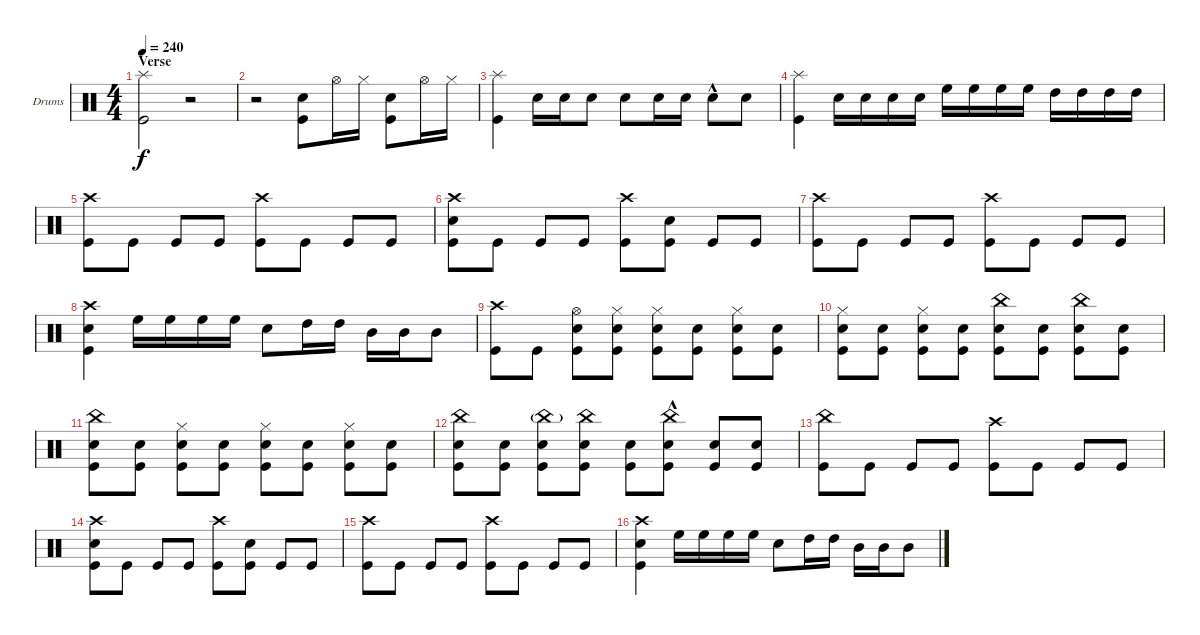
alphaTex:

\bracketExtendMode groupsimilarinstruments
\firstSystemTrackNameOrientation horizontal
\otherSystemsTrackNameOrientation horizontal
\track ("Drumkit" "Drums") {instrument percussion}
\staff {score}
\articulation defaults
\ts (4 4)
\section ("" "Verse")
\tempo 240
\clef neutral
\ks c
("Splash (hit)" "Kick (hit)").2{dy f} r.2 |
r.2 ("Snare (hit) 2" "Kick (hit)").8 "Hi-Hat (open)".16 "Hi-Hat (closed)".16 ("Snare (hit) 2" "Kick (hit)").8 "Hi-Hat (open)".16 "Hi-Hat (closed)".16 |
("Splash (hit)" "Kick (hit)").4 "Snare (hit) 2".16 "Snare (hit) 2".16 "Snare (hit) 2".8 "Snare (hit) 2".8 "Snare (hit) 2".16 "Snare (hit) 2".16 "Snare (hit) 2"{hac}.8 "Snare (hit) 2".8 |
("Splash (hit)" "Kick (hit)").4 "Snare (hit) 2".16 "Snare (hit) 2".16 "Snare (hit) 2".16 "Snare (hit) 2".16 "High Floor Tom (hit)".16 "High Floor Tom (hit)".16 "High Floor Tom (hit)".16 "High Floor Tom (hit)".16 "High Tom (hit)".16 "High Tom (hit)".16 "High Tom (hit)".16 "High Tom (hit)".16 |
("Crash high (hit)" "Kick (hit)").8 "Kick (hit)".8 "Kick (hit)".8 "Kick (hit)".8 ("Crash high (hit)" "Kick (hit)").8 "Kick (hit)".8 "Kick (hit)".8 "Kick (hit)".8 |
("Crash high (hit)" "Snare (hit) 2" "Kick (hit)").8 "Kick (hit)".8 "Kick (hit)".8 "Kick (hit)".8 ("Crash high (hit)" "Kick (hit)").8 ("Snare (hit) 2" "Kick (hit)").8 "Kick (hit)".8 "Kick (hit)".8 |
("Crash high (hit)" "Kick (hit)").8 "Kick (hit)".8 "Kick (hit)".8 "Kick (hit)".8 ("Crash high (hit)" "Kick (hit)").8 "Kick (hit)".8 "Kick (hit)".8 "Kick (hit)".8 |
("Crash high (hit)" "Snare (hit) 2" "Kick (hit)").4 "High Floor Tom (hit)".16 "High Floor Tom (hit)".16 "High Floor Tom (hit)".16 "High Floor Tom (hit)".16 "Snare (hit) 2".8 "High Tom (hit)".16 "High Tom (hit)".16 "Mid Tom (hit)".16 "Mid Tom (hit)".16 "Mid Tom (hit)".8 |
("Crash high (hit)" "Kick (hit)").8 "Kick (hit)".8 ("Hi-Hat (open)" "Snare (hit) 2" "Kick (hit)").8 ("Hi-Hat (closed)" "Snare (hit) 2" "Kick (hit)").8 ("Hi-Hat (closed)" "Snare (hit) 2" "Kick (hit)").8 ("Snare (hit) 2" "Kick (hit)").8 ("Hi-Hat (closed)" "Snare (hit) 2" "Kick (hit)").8 ("Snare (hit) 2" "Kick (hit)").8 |
("Hi-Hat (closed)" "Snare (hit) 2" "Kick (hit)").8 ("Snare (hit) 2" "Kick (hit)").8 ("Hi-Hat (closed)" "Snare (hit) 2" "Kick (hit)").8 ("Snare (hit) 2" "Kick (hit)").8 ("China (hit)" "Snare (hit) 2" "Kick (hit)").8 ("Snare (hit) 2" "Kick (hit)").8 ("China (hit)" "Snare (hit) 2" "Kick (hit)").8 ("Snare (hit) 2" "Kick (hit)").8 |
("China (hit)" "Snare (hit) 2" "Kick (hit)").8 ("Snare (hit) 2" "Kick (hit)").8 ("Hi-Hat (closed)" "Snare (hit) 2" "Kick (hit)").8 ("Snare (hit) 2" "Kick (hit)").8 ("Hi-Hat (closed)" "Snare (hit) 2" "Kick (hit)").8 ("Snare (hit) 2" "Kick (hit)").8 ("Hi-Hat (closed)" "Snare (hit) 2" "Kick (hit)").8 ("Snare (hit) 2" "Kick (hit)").8 |
("China (hit)" "Snare (hit) 2" "Kick (hit)").8 ("Snare (hit) 2" "Kick (hit)").8 ("China (hit)"{g} "Snare (hit) 2" "Kick (hit)").8 ("China (hit)" "Snare (hit) 2" "Kick (hit)").8 ("Snare (hit) 2" "Kick (hit)").8 ("China (hit)"{hac} "Snare (hit) 2" "Kick (hit)").8 ("Snare (hit) 2" "Kick (hit)").8 ("Snare (hit) 2" "Kick (hit)").8 |
("China (hit)" "Kick (hit)").8 "Kick (hit)".8 "Kick (hit)".8 "Kick (hit)".8 ("Crash high (hit)" "Kick (hit)").8 "Kick (hit)".8 "Kick (hit)".8 "Kick (hit)".8 |
("Crash high (hit)" "Snare (hit) 2" "Kick (hit)").8 "Kick (hit)".8 "Kick (hit)".8 "Kick (hit)".8 ("Crash high (hit)" "Kick (hit)").8 ("Snare (hit) 2" "Kick (hit)").8 "Kick (hit)".8 "Kick (hit)".8 |
("Crash high (hit)" "Kick (hit)").8 "Kick (hit)".8 "Kick (hit)".8 "Kick (hit)".8 ("Crash high (hit)" "Kick (hit)").8 "Kick (hit)".8 "Kick (hit)".8 "Kick (hit)".8 |
("Crash high (hit)" "Snare (hit) 2" "Kick (hit)").4 "High Floor Tom (hit)".16 "High Floor Tom (hit)".16 "High Floor Tom (hit)".16 "High Floor Tom (hit)".16 "Snare (hit) 2".8 "High Tom (hit)".16 "High Tom (hit)".16 "Mid Tom (hit)".16 "Mid Tom (hit)".16 "Mid Tom (hit)".8
